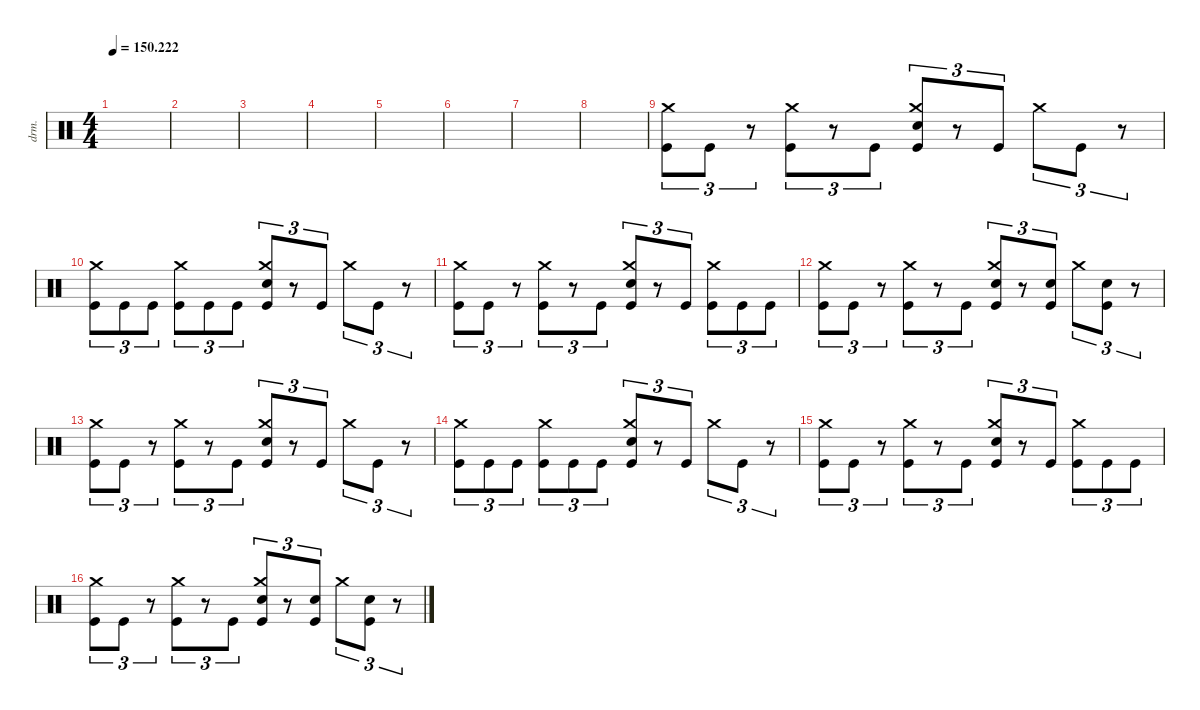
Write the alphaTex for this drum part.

\defaultSystemsLayout 4
\hideDynamics
\bracketExtendMode nobrackets
\otherSystemsTrackNameOrientation horizontal
\track ("Drumkit" "drm.") {instrument percussion}
\staff {score}
\articulation defaults
\ts (4 4)
\tempo
150.222
\accidentals auto
\clef neutral
\ottava regular
\simile none
\ks c
|
|
|
|
|
|
|
|
("Kick (hit)" "Crash medium (hit)").8{tu (3 2)} "Kick (hit)".8{tu (3 2)} r.8{tu (3 2)} ("Kick (hit)" "Crash medium (hit)").8{tu (3 2)} r.8{tu (3 2)} "Kick (hit)".8{tu (3 2)} ("Kick (hit)" "Snare (hit) 2" "Crash medium (hit)").8{tu (3 2)} r.8{tu (3 2)} "Kick (hit)".8{tu (3 2)} "Crash medium (hit)".8{tu (3 2)} "Kick (hit)".8{tu (3 2)} r.8{tu (3 2)} |
("Kick (hit)" "Crash medium (hit)").8{tu (3 2)} "Kick (hit)".8{tu (3 2)} "Kick (hit)".8{tu (3 2)} ("Kick (hit)" "Crash medium (hit)").8{tu (3 2)} "Kick (hit)".8{tu (3 2)} "Kick (hit)".8{tu (3 2)} ("Kick (hit)" "Snare (hit) 2" "Crash medium (hit)").8{tu (3 2)} r.8{tu (3 2)} "Kick (hit)".8{tu (3 2)} "Crash medium (hit)".8{tu (3 2)} "Kick (hit)".8{tu (3 2)} r.8{tu (3 2)} |
("Kick (hit)" "Crash medium (hit)").8{tu (3 2)} "Kick (hit)".8{tu (3 2)} r.8{tu (3 2)} ("Kick (hit)" "Crash medium (hit)").8{tu (3 2)} r.8{tu (3 2)} "Kick (hit)".8{tu (3 2)} ("Kick (hit)" "Snare (hit) 2" "Crash medium (hit)").8{tu (3 2)} r.8{tu (3 2)} "Kick (hit)".8{tu (3 2)} ("Crash medium (hit)" "Kick (hit)").8{tu (3 2)} "Kick (hit)".8{tu (3 2)} "Kick (hit)".8{tu (3 2)} |
("Kick (hit)" "Crash medium (hit)").8{tu (3 2)} "Kick (hit)".8{tu (3 2)} r.8{tu (3 2)} ("Kick (hit)" "Crash medium (hit)").8{tu (3 2)} r.8{tu (3 2)} "Kick (hit)".8{tu (3 2)} ("Kick (hit)" "Snare (hit) 2" "Crash medium (hit)").8{tu (3 2)} r.8{tu (3 2)} ("Kick (hit)" "Snare (hit) 2").8{tu (3 2)} "Crash medium (hit)".8{tu (3 2)} ("Kick (hit)" "Snare (hit) 2").8{tu (3 2)} r.8{tu (3 2)} |
("Kick (hit)" "Crash medium (hit)").8{tu (3 2)} "Kick (hit)".8{tu (3 2)} r.8{tu (3 2)} ("Kick (hit)" "Crash medium (hit)").8{tu (3 2)} r.8{tu (3 2)} "Kick (hit)".8{tu (3 2)} ("Kick (hit)" "Snare (hit) 2" "Crash medium (hit)").8{tu (3 2)} r.8{tu (3 2)} "Kick (hit)".8{tu (3 2)} "Crash medium (hit)".8{tu (3 2)} "Kick (hit)".8{tu (3 2)} r.8{tu (3 2)} |
("Kick (hit)" "Crash medium (hit)").8{tu (3 2)} "Kick (hit)".8{tu (3 2)} "Kick (hit)".8{tu (3 2)} ("Kick (hit)" "Crash medium (hit)").8{tu (3 2)} "Kick (hit)".8{tu (3 2)} "Kick (hit)".8{tu (3 2)} ("Kick (hit)" "Snare (hit) 2" "Crash medium (hit)").8{tu (3 2)} r.8{tu (3 2)} "Kick (hit)".8{tu (3 2)} "Crash medium (hit)".8{tu (3 2)} "Kick (hit)".8{tu (3 2)} r.8{tu (3 2)} |
("Kick (hit)" "Crash medium (hit)").8{tu (3 2)} "Kick (hit)".8{tu (3 2)} r.8{tu (3 2)} ("Kick (hit)" "Crash medium (hit)").8{tu (3 2)} r.8{tu (3 2)} "Kick (hit)".8{tu (3 2)} ("Kick (hit)" "Snare (hit) 2" "Crash medium (hit)").8{tu (3 2)} r.8{tu (3 2)} "Kick (hit)".8{tu (3 2)} ("Crash medium (hit)" "Kick (hit)").8{tu (3 2)} "Kick (hit)".8{tu (3 2)} "Kick (hit)".8{tu (3 2)} |
("Kick (hit)" "Crash medium (hit)").8{tu (3 2)} "Kick (hit)".8{tu (3 2)} r.8{tu (3 2)} ("Kick (hit)" "Crash medium (hit)").8{tu (3 2)} r.8{tu (3 2)} "Kick (hit)".8{tu (3 2)} ("Kick (hit)" "Snare (hit) 2" "Crash medium (hit)").8{tu (3 2)} r.8{tu (3 2)} ("Kick (hit)" "Snare (hit) 2").8{tu (3 2)} "Crash medium (hit)".8{tu (3 2)} ("Kick (hit)" "Snare (hit) 2").8{tu (3 2)} r.8{tu (3 2)}
